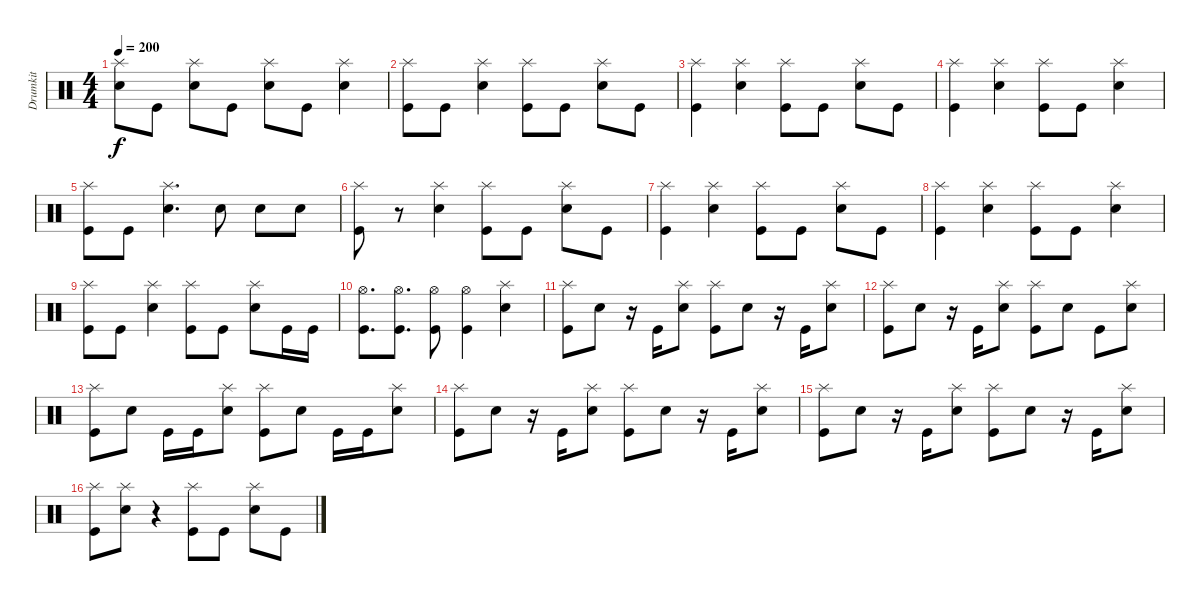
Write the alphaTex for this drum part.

\track ("Drumkit" "Drumkit") {instrument percussion}
\staff {score}
\articulation defaults
\ts (4 4)
\tempo 200
\clef neutral
\ks c
("Snare (hit) 2" "Splash (hit)").8{dy f} "Kick (hit)".8 ("Snare (hit) 2" "Splash (hit)").8 "Kick (hit)".8 ("Snare (hit) 2" "Splash (hit)").8 "Kick (hit)".8 ("Snare (hit) 2" "Splash (hit)").4 |
("Kick (hit)" "Splash (hit)").8 "Kick (hit)".8 ("Snare (hit) 2" "Splash (hit)").4 ("Kick (hit)" "Splash (hit)").8 "Kick (hit)".8 ("Snare (hit) 2" "Splash (hit)").8 "Kick (hit)".8 |
("Kick (hit)" "Splash (hit)").4 ("Snare (hit) 2" "Splash (hit)").4 ("Kick (hit)" "Splash (hit)").8 "Kick (hit)".8 ("Snare (hit) 2" "Splash (hit)").8 "Kick (hit)".8 |
("Kick (hit)" "Splash (hit)").4 ("Snare (hit) 2" "Splash (hit)").4 ("Kick (hit)" "Splash (hit)").8 "Kick (hit)".8 ("Snare (hit) 2" "Splash (hit)").4 |
("Kick (hit)" "Splash (hit)").8 "Kick (hit)".8 ("Snare (hit) 2" "Splash (hit)").4{d} "Snare (hit) 2".8 "Snare (hit) 2".8 "Snare (hit) 2".8 |
("Kick (hit)" "Splash (hit)").8 r.8 ("Snare (hit) 2" "Splash (hit)").4 ("Kick (hit)" "Splash (hit)").8 "Kick (hit)".8 ("Snare (hit) 2" "Splash (hit)").8 "Kick (hit)".8 |
("Kick (hit)" "Splash (hit)").4 ("Snare (hit) 2" "Splash (hit)").4 ("Kick (hit)" "Splash (hit)").8 "Kick (hit)".8 ("Snare (hit) 2" "Splash (hit)").8 "Kick (hit)".8 |
("Kick (hit)" "Splash (hit)").4 ("Snare (hit) 2" "Splash (hit)").4 ("Kick (hit)" "Splash (hit)").8 "Kick (hit)".8 ("Snare (hit) 2" "Splash (hit)").4 |
("Kick (hit)" "Splash (hit)").8 "Kick (hit)".8 ("Snare (hit) 2" "Splash (hit)").4 ("Kick (hit)" "Splash (hit)").8 "Kick (hit)".8 ("Snare (hit) 2" "Splash (hit)").8 "Kick (hit)".16 "Kick (hit)".16 |
("Kick (hit)" "Hi-Hat (open)").8{d} ("Kick (hit)" "Hi-Hat (open)").8{d} ("Kick (hit)" "Hi-Hat (open)").8 ("Kick (hit)" "Hi-Hat (open)").4 ("Snare (hit) 2" "Splash (hit)").4 |
("Kick (hit)" "Splash (hit)").8 "Snare (hit) 2".8 r.16 "Kick (hit)".16 ("Snare (hit) 2" "Splash (hit)").8 ("Kick (hit)" "Splash (hit)").8 "Snare (hit) 2".8 r.16 "Kick (hit)".16 ("Snare (hit) 2" "Splash (hit)").8 |
("Kick (hit)" "Splash (hit)").8 "Snare (hit) 2".8 r.16 "Kick (hit)".16 ("Snare (hit) 2" "Splash (hit)").8 ("Kick (hit)" "Splash (hit)").8 "Snare (hit) 2".8 "Kick (hit)".8 ("Snare (hit) 2" "Splash (hit)").8 |
("Kick (hit)" "Splash (hit)").8 "Snare (hit) 2".8 "Kick (hit)".16 "Kick (hit)".16 ("Snare (hit) 2" "Splash (hit)").8 ("Kick (hit)" "Splash (hit)").8 "Snare (hit) 2".8 "Kick (hit)".16 "Kick (hit)".16 ("Snare (hit) 2" "Splash (hit)").8 |
("Kick (hit)" "Splash (hit)").8 "Snare (hit) 2".8 r.16 "Kick (hit)".16 ("Snare (hit) 2" "Splash (hit)").8 ("Kick (hit)" "Splash (hit)").8 "Snare (hit) 2".8 r.16 "Kick (hit)".16 ("Snare (hit) 2" "Splash (hit)").8 |
("Kick (hit)" "Splash (hit)").8 "Snare (hit) 2".8 r.16 "Kick (hit)".16 ("Snare (hit) 2" "Splash (hit)").8 ("Kick (hit)" "Splash (hit)").8 "Snare (hit) 2".8 r.16 "Kick (hit)".16 ("Snare (hit) 2" "Splash (hit)").8 |
("Kick (hit)" "Splash (hit)").8 ("Snare (hit) 2" "Splash (hit)").8 r.4 ("Kick (hit)" "Splash (hit)").8 "Kick (hit)".8 ("Snare (hit) 2" "Splash (hit)").8 "Kick (hit)".8
